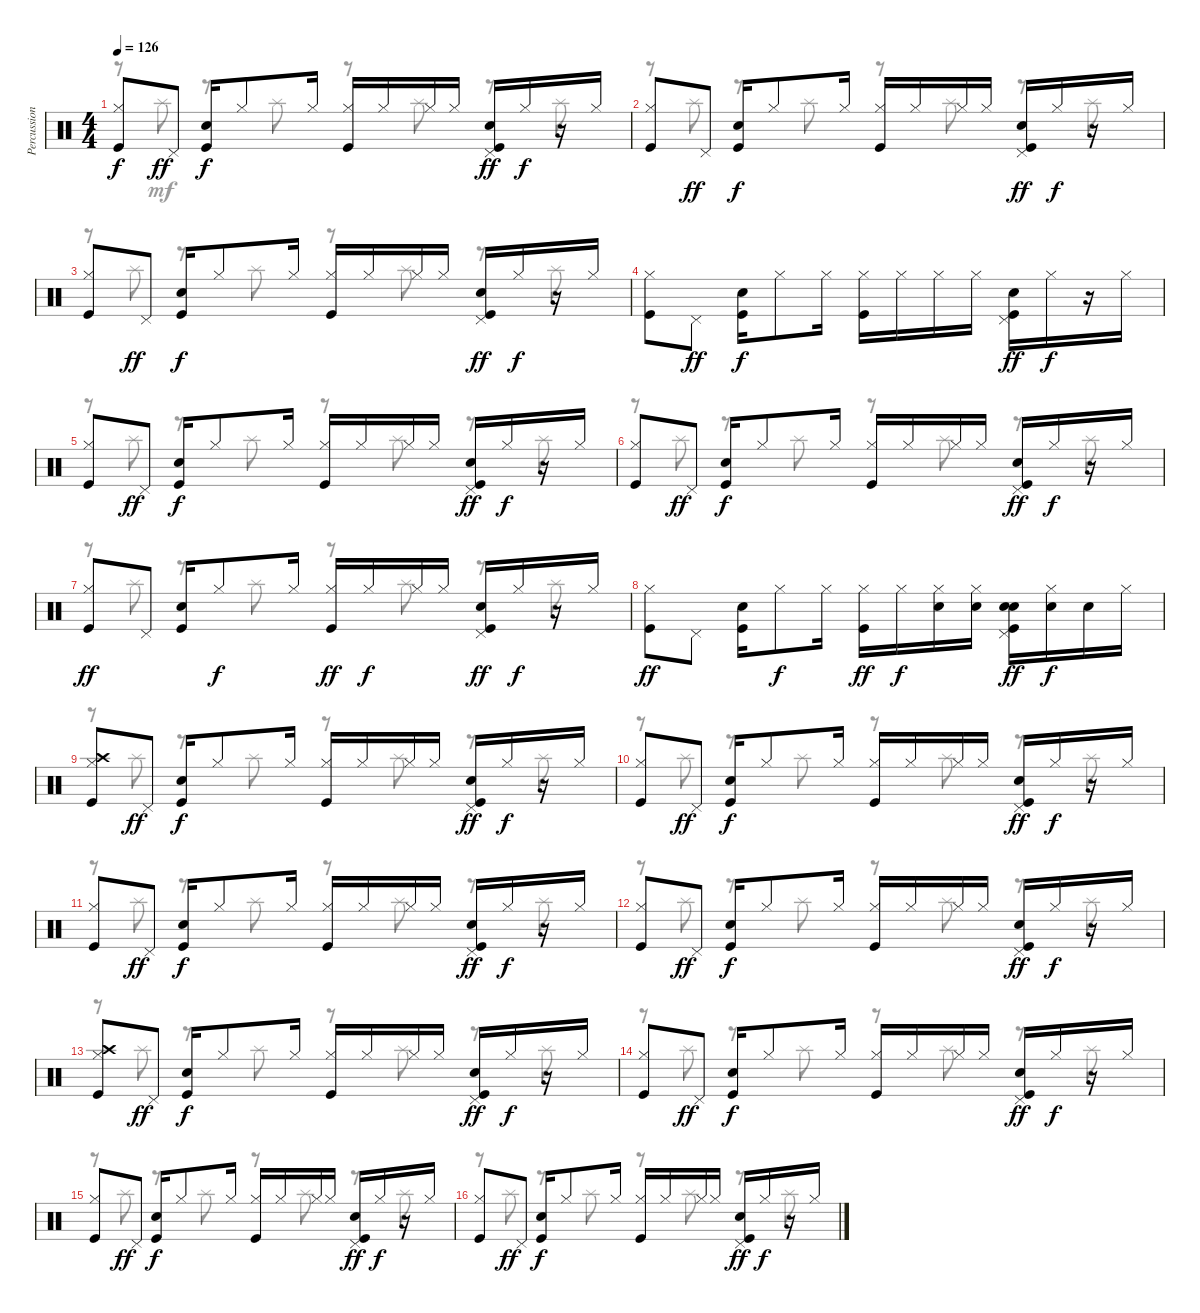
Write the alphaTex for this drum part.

\track ("Percussion" "Percussion") {instrument percussion}
\staff {score}
\articulation defaults
\voice
\ts (4 4)
\tempo 126
\clef neutral
\ks c
("Kick (hit)" "Hi-Hat (closed)").8{dy f} "Pedal Hi-Hat (hit)".8{dy ff} ("Kick (hit)" "Snare (hit) 2").16{dy f} "Hi-Hat (closed)".8 "Hi-Hat (closed)".16 ("Kick (hit)" "Hi-Hat (closed)").16 "Hi-Hat (closed)".16 "Hi-Hat (closed)".16 "Hi-Hat (closed)".16 ("Kick (hit)" "Snare (hit) 2" "Pedal Hi-Hat (hit)").16{dy ff} "Hi-Hat (closed)".16{dy f} r.16 "Hi-Hat (closed)".16 |
("Kick (hit)" "Hi-Hat (closed)").8 "Pedal Hi-Hat (hit)".8{dy ff} ("Kick (hit)" "Snare (hit) 2").16{dy f} "Hi-Hat (closed)".8 "Hi-Hat (closed)".16 ("Kick (hit)" "Hi-Hat (closed)").16 "Hi-Hat (closed)".16 "Hi-Hat (closed)".16 "Hi-Hat (closed)".16 ("Kick (hit)" "Snare (hit) 2" "Pedal Hi-Hat (hit)").16{dy ff} "Hi-Hat (closed)".16{dy f} r.16 "Hi-Hat (closed)".16 |
("Kick (hit)" "Hi-Hat (closed)").8 "Pedal Hi-Hat (hit)".8{dy ff} ("Kick (hit)" "Snare (hit) 2").16{dy f} "Hi-Hat (closed)".8 "Hi-Hat (closed)".16 ("Kick (hit)" "Hi-Hat (closed)").16 "Hi-Hat (closed)".16 "Hi-Hat (closed)".16 "Hi-Hat (closed)".16 ("Kick (hit)" "Snare (hit) 2" "Pedal Hi-Hat (hit)").16{dy ff} "Hi-Hat (closed)".16{dy f} r.16 "Hi-Hat (closed)".16 |
("Kick (hit)" "Hi-Hat (closed)").8 "Pedal Hi-Hat (hit)".8{dy ff} ("Kick (hit)" "Snare (hit) 2").16{dy f} "Hi-Hat (closed)".8 "Hi-Hat (closed)".16 ("Kick (hit)" "Hi-Hat (closed)").16 "Hi-Hat (closed)".16 "Hi-Hat (closed)".16 "Hi-Hat (closed)".16 ("Kick (hit)" "Snare (hit) 2" "Pedal Hi-Hat (hit)").16{dy ff} "Hi-Hat (closed)".16{dy f} r.16 "Hi-Hat (closed)".16 |
("Kick (hit)" "Hi-Hat (closed)").8 "Pedal Hi-Hat (hit)".8{dy ff} ("Kick (hit)" "Snare (hit) 2").16{dy f} "Hi-Hat (closed)".8 "Hi-Hat (closed)".16 ("Kick (hit)" "Hi-Hat (closed)").16 "Hi-Hat (closed)".16 "Hi-Hat (closed)".16 "Hi-Hat (closed)".16 ("Kick (hit)" "Snare (hit) 2" "Pedal Hi-Hat (hit)").16{dy ff} "Hi-Hat (closed)".16{dy f} r.16 "Hi-Hat (closed)".16 |
("Kick (hit)" "Hi-Hat (closed)").8 "Pedal Hi-Hat (hit)".8{dy ff} ("Kick (hit)" "Snare (hit) 2").16{dy f} "Hi-Hat (closed)".8 "Hi-Hat (closed)".16 ("Kick (hit)" "Hi-Hat (closed)").16 "Hi-Hat (closed)".16 "Hi-Hat (closed)".16 "Hi-Hat (closed)".16 ("Kick (hit)" "Snare (hit) 2" "Pedal Hi-Hat (hit)").16{dy ff} "Hi-Hat (closed)".16{dy f} r.16 "Hi-Hat (closed)".16 |
("Kick (hit)" "Hi-Hat (closed)").8{dy ff} "Pedal Hi-Hat (hit)".8 ("Kick (hit)" "Snare (hit) 2").16 "Hi-Hat (closed)".8{dy f} "Hi-Hat (closed)".16 ("Kick (hit)" "Hi-Hat (closed)").16{dy ff} "Hi-Hat (closed)".16{dy f} "Hi-Hat (closed)".16 "Hi-Hat (closed)".16 ("Kick (hit)" "Snare (hit) 2" "Pedal Hi-Hat (hit)").16{dy ff} "Hi-Hat (closed)".16{dy f} r.16 "Hi-Hat (closed)".16 |
("Kick (hit)" "Hi-Hat (closed)").8{dy ff} "Pedal Hi-Hat (hit)".8 ("Kick (hit)" "Snare (hit) 2").16 "Hi-Hat (closed)".8{dy f} "Hi-Hat (closed)".16 ("Kick (hit)" "Hi-Hat (closed)").16{dy ff} "Hi-Hat (closed)".16{dy f} ("Electric Snare (hit)" "Hi-Hat (closed)").16 ("Electric Snare (hit)" "Hi-Hat (closed)").16 ("Electric Snare (hit)" "Kick (hit)" "Snare (hit) 2" "Pedal Hi-Hat (hit)").16{dy ff} ("Electric Snare (hit)" "Hi-Hat (closed)").16{dy f} "Electric Snare (hit)".16 "Hi-Hat (closed)".16 |
("Kick (hit)" "Hi-Hat (closed)" "Crash high (hit)").8 "Pedal Hi-Hat (hit)".8{dy ff} ("Kick (hit)" "Snare (hit) 2").16{dy f} "Hi-Hat (closed)".8 "Hi-Hat (closed)".16 ("Kick (hit)" "Hi-Hat (closed)").16 "Hi-Hat (closed)".16 "Hi-Hat (closed)".16 "Hi-Hat (closed)".16 ("Kick (hit)" "Snare (hit) 2" "Pedal Hi-Hat (hit)").16{dy ff} "Hi-Hat (closed)".16{dy f} r.16 "Hi-Hat (closed)".16 |
("Kick (hit)" "Hi-Hat (closed)").8 "Pedal Hi-Hat (hit)".8{dy ff} ("Kick (hit)" "Snare (hit) 2").16{dy f} "Hi-Hat (closed)".8 "Hi-Hat (closed)".16 ("Kick (hit)" "Hi-Hat (closed)").16 "Hi-Hat (closed)".16 "Hi-Hat (closed)".16 "Hi-Hat (closed)".16 ("Kick (hit)" "Snare (hit) 2" "Pedal Hi-Hat (hit)").16{dy ff} "Hi-Hat (closed)".16{dy f} r.16 "Hi-Hat (closed)".16 |
("Kick (hit)" "Hi-Hat (closed)").8 "Pedal Hi-Hat (hit)".8{dy ff} ("Kick (hit)" "Snare (hit) 2").16{dy f} "Hi-Hat (closed)".8 "Hi-Hat (closed)".16 ("Kick (hit)" "Hi-Hat (closed)").16 "Hi-Hat (closed)".16 "Hi-Hat (closed)".16 "Hi-Hat (closed)".16 ("Kick (hit)" "Snare (hit) 2" "Pedal Hi-Hat (hit)").16{dy ff} "Hi-Hat (closed)".16{dy f} r.16 "Hi-Hat (closed)".16 |
("Kick (hit)" "Hi-Hat (closed)").8 "Pedal Hi-Hat (hit)".8{dy ff} ("Kick (hit)" "Snare (hit) 2").16{dy f} "Hi-Hat (closed)".8 "Hi-Hat (closed)".16 ("Kick (hit)" "Hi-Hat (closed)").16 "Hi-Hat (closed)".16 "Hi-Hat (closed)".16 "Hi-Hat (closed)".16 ("Kick (hit)" "Snare (hit) 2" "Pedal Hi-Hat (hit)").16{dy ff} "Hi-Hat (closed)".16{dy f} r.16 "Hi-Hat (closed)".16 |
("Kick (hit)" "Hi-Hat (closed)" "Crash high (hit)").8 "Pedal Hi-Hat (hit)".8{dy ff} ("Kick (hit)" "Snare (hit) 2").16{dy f} "Hi-Hat (closed)".8 "Hi-Hat (closed)".16 ("Kick (hit)" "Hi-Hat (closed)").16 "Hi-Hat (closed)".16 "Hi-Hat (closed)".16 "Hi-Hat (closed)".16 ("Kick (hit)" "Snare (hit) 2" "Pedal Hi-Hat (hit)").16{dy ff} "Hi-Hat (closed)".16{dy f} r.16 "Hi-Hat (closed)".16 |
("Kick (hit)" "Hi-Hat (closed)").8 "Pedal Hi-Hat (hit)".8{dy ff} ("Kick (hit)" "Snare (hit) 2").16{dy f} "Hi-Hat (closed)".8 "Hi-Hat (closed)".16 ("Kick (hit)" "Hi-Hat (closed)").16 "Hi-Hat (closed)".16 "Hi-Hat (closed)".16 "Hi-Hat (closed)".16 ("Kick (hit)" "Snare (hit) 2" "Pedal Hi-Hat (hit)").16{dy ff} "Hi-Hat (closed)".16{dy f} r.16 "Hi-Hat (closed)".16 |
("Kick (hit)" "Hi-Hat (closed)").8 "Pedal Hi-Hat (hit)".8{dy ff} ("Kick (hit)" "Snare (hit) 2").16{dy f} "Hi-Hat (closed)".8 "Hi-Hat (closed)".16 ("Kick (hit)" "Hi-Hat (closed)").16 "Hi-Hat (closed)".16 "Hi-Hat (closed)".16 "Hi-Hat (closed)".16 ("Kick (hit)" "Snare (hit) 2" "Pedal Hi-Hat (hit)").16{dy ff} "Hi-Hat (closed)".16{dy f} r.16 "Hi-Hat (closed)".16 |
("Kick (hit)" "Hi-Hat (closed)").8 "Pedal Hi-Hat (hit)".8{dy ff} ("Kick (hit)" "Snare (hit) 2").16{dy f} "Hi-Hat (closed)".8 "Hi-Hat (closed)".16 ("Kick (hit)" "Hi-Hat (closed)").16 "Hi-Hat (closed)".16 "Hi-Hat (closed)".16 "Hi-Hat (closed)".16 ("Kick (hit)" "Snare (hit) 2" "Pedal Hi-Hat (hit)").16{dy ff} "Hi-Hat (closed)".16{dy f} r.16 "Hi-Hat (closed)".16
\voice
\clef neutral
\ottava regular
\simile none
\ks c
r.8{dy mf} "Splash (hit)".8 r.8 "Splash (hit)".8 r.8 "Splash (hit)".8 r.8 "Splash (hit)".8 |
r.8 "Splash (hit)".8 r.8 "Splash (hit)".8 r.8 "Splash (hit)".8 r.8 "Splash (hit)".8 |
r.8 "Splash (hit)".8 r.8 "Splash (hit)".8 r.8 "Splash (hit)".8 r.8 "Splash (hit)".8 |
|
r.8 "Splash (hit)".8 r.8 "Splash (hit)".8 r.8 "Splash (hit)".8 r.8 "Splash (hit)".8 |
r.8 "Splash (hit)".8 r.8 "Splash (hit)".8 r.8 "Splash (hit)".8 r.8 "Splash (hit)".8 |
r.8 "Splash (hit)".8 r.8 "Splash (hit)".8 r.8 "Splash (hit)".8 r.8 "Splash (hit)".8 |
|
r.8 "Splash (hit)".8 r.8 "Splash (hit)".8 r.8 "Splash (hit)".8 r.8 "Splash (hit)".8 |
r.8 "Splash (hit)".8 r.8 "Splash (hit)".8 r.8 "Splash (hit)".8 r.8 "Splash (hit)".8 |
r.8 "Splash (hit)".8 r.8 "Splash (hit)".8 r.8 "Splash (hit)".8 r.8 "Splash (hit)".8 |
r.8 "Splash (hit)".8 r.8 "Splash (hit)".8 r.8 "Splash (hit)".8 r.8 "Splash (hit)".8 |
r.8 "Splash (hit)".8 r.8 "Splash (hit)".8 r.8 "Splash (hit)".8 r.8 "Splash (hit)".8 |
r.8 "Splash (hit)".8 r.8 "Splash (hit)".8 r.8 "Splash (hit)".8 r.8 "Splash (hit)".8 |
r.8 "Splash (hit)".8 r.8 "Splash (hit)".8 r.8 "Splash (hit)".8 r.8 "Splash (hit)".8 |
r.8 "Splash (hit)".8 r.8 "Splash (hit)".8 r.8 "Splash (hit)".8 r.8 "Splash (hit)".8
